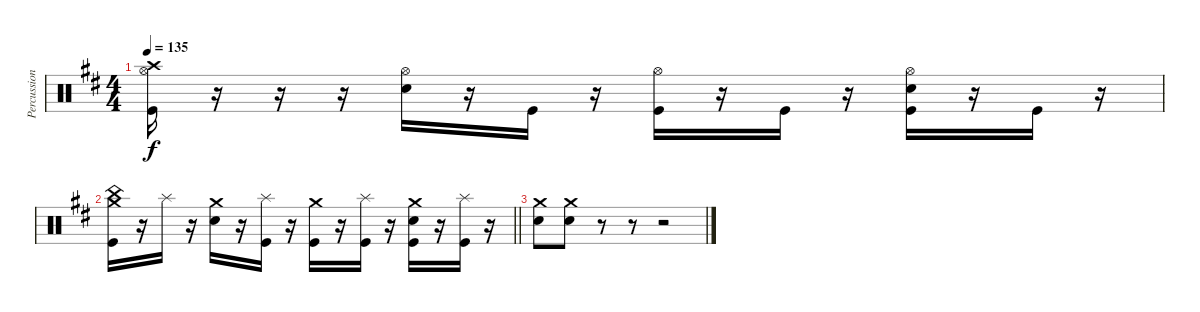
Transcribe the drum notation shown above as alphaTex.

\track ("Percussion" "Percussion") {instrument percussion}
\staff {score}
\articulation defaults
\ts (4 4)
\tempo 135
\clef neutral
\ks bminor
("Hi-Hat (open)" "Crash high (hit)" "Kick (hit)").16{dy f} r.16 r.16 r.16 ("Hi-Hat (open)" "Electric Snare (hit)").16 r.16 "Kick (hit)".16 r.16 ("Hi-Hat (open)" "Kick (hit)").16 r.16 "Kick (hit)".16 r.16 ("Hi-Hat (open)" "Electric Snare (hit)" "Kick (hit)").16 r.16 "Kick (hit)".16 r.16 |
\barLineRight lightlight
("Crash medium (hit)" "China (hit)" "Kick (hit)").16 r.16 "Splash (hit)".16 r.16 ("Crash medium (hit)" "Electric Snare (hit)").16 r.16 ("Splash (hit)" "Kick (hit)").16 r.16 ("Crash medium (hit)" "Kick (hit)").16 r.16 ("Splash (hit)" "Kick (hit)").16 r.16 ("Crash medium (hit)" "Electric Snare (hit)" "Kick (hit)").16 r.16 ("Splash (hit)" "Kick (hit)").16 r.16 |
("Crash medium (hit)" "Electric Snare (hit)").8 ("Crash medium (hit)" "Electric Snare (hit)").8 r.8 r.8 r.2
